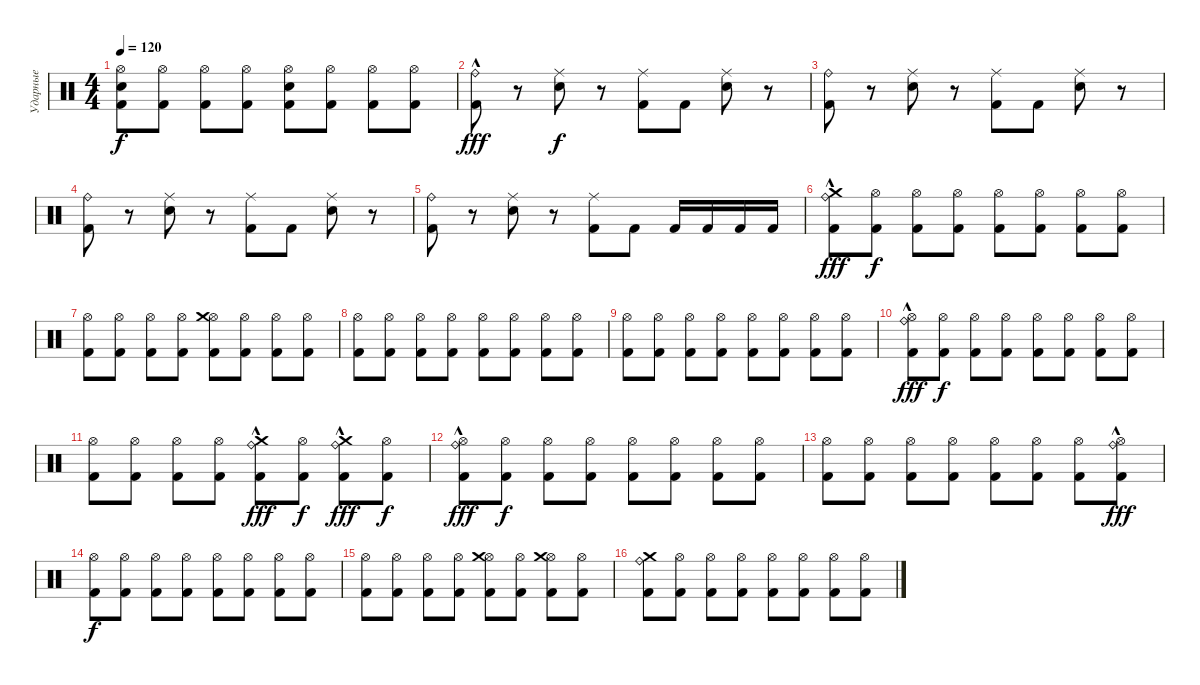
\track ("Ударные" "Ударные") {instrument percussion}
\staff {score}
\articulation defaults
\ts (4 4)
\tempo 120
\clef neutral
\ks c
("Electric Snare (hit)" "Kick (hit) 2" "Hi-Hat (open)").8{dy f} ("Kick (hit) 2" "Hi-Hat (open)").8 ("Kick (hit) 2" "Hi-Hat (open)").8 ("Kick (hit) 2" "Hi-Hat (open)").8 ("Electric Snare (hit)" "Kick (hit) 2" "Hi-Hat (open)").8 ("Kick (hit) 2" "Hi-Hat (open)").8 ("Kick (hit) 2" "Hi-Hat (open)").8 ("Kick (hit) 2" "Hi-Hat (open)").8 |
("Kick (hit) 2" "Ride (bell)"{hac}).8{dy fff} r.8 ("Electric Snare (hit)" "Ride (middle)").8{dy f} r.8 ("Kick (hit) 2" "Ride (middle)").8 "Kick (hit) 2".8 ("Electric Snare (hit)" "Ride (middle)").8 r.8 |
("Kick (hit) 2" "Ride (bell)").8 r.8 ("Electric Snare (hit)" "Ride (middle)").8 r.8 ("Kick (hit) 2" "Ride (middle)").8 "Kick (hit) 2".8 ("Electric Snare (hit)" "Ride (middle)").8 r.8 |
("Kick (hit) 2" "Ride (bell)").8 r.8 ("Electric Snare (hit)" "Ride (middle)").8 r.8 ("Kick (hit) 2" "Ride (middle)").8 "Kick (hit) 2".8 ("Electric Snare (hit)" "Ride (middle)").8 r.8 |
("Kick (hit) 2" "Ride (bell)").8 r.8 ("Electric Snare (hit)" "Ride (middle)").8 r.8 ("Kick (hit) 2" "Ride (middle)").8 "Kick (hit) 2".8 "Kick (hit) 2".16 "Kick (hit) 2".16 "Kick (hit) 2".16 "Kick (hit) 2".16 |
("Kick (hit) 2" "Crash medium (hit)" "Ride (bell)"{hac}).8{dy fff} ("Kick (hit) 2" "Hi-Hat (open)").8{dy f} ("Kick (hit) 2" "Hi-Hat (open)").8 ("Kick (hit) 2" "Hi-Hat (open)").8 ("Kick (hit) 2" "Hi-Hat (open)").8 ("Kick (hit) 2" "Hi-Hat (open)").8 ("Kick (hit) 2" "Hi-Hat (open)").8 ("Kick (hit) 2" "Hi-Hat (open)").8 |
("Kick (hit) 2" "Hi-Hat (open)").8 ("Kick (hit) 2" "Hi-Hat (open)").8 ("Kick (hit) 2" "Hi-Hat (open)").8 ("Kick (hit) 2" "Hi-Hat (open)").8 ("Kick (hit) 2" "Hi-Hat (open)" "Crash medium (hit)").8 ("Kick (hit) 2" "Hi-Hat (open)").8 ("Kick (hit) 2" "Hi-Hat (open)").8 ("Kick (hit) 2" "Hi-Hat (open)").8 |
("Kick (hit) 2" "Hi-Hat (open)").8 ("Kick (hit) 2" "Hi-Hat (open)").8 ("Kick (hit) 2" "Hi-Hat (open)").8 ("Kick (hit) 2" "Hi-Hat (open)").8 ("Kick (hit) 2" "Hi-Hat (open)").8 ("Kick (hit) 2" "Hi-Hat (open)").8 ("Kick (hit) 2" "Hi-Hat (open)").8 ("Kick (hit) 2" "Hi-Hat (open)").8 |
("Kick (hit) 2" "Hi-Hat (open)").8 ("Kick (hit) 2" "Hi-Hat (open)").8 ("Kick (hit) 2" "Hi-Hat (open)").8 ("Kick (hit) 2" "Hi-Hat (open)").8 ("Kick (hit) 2" "Hi-Hat (open)").8 ("Kick (hit) 2" "Hi-Hat (open)").8 ("Kick (hit) 2" "Hi-Hat (open)").8 ("Kick (hit) 2" "Hi-Hat (open)").8 |
("Kick (hit) 2" "Hi-Hat (open)" "Ride (bell)"{hac}).8{dy fff} ("Kick (hit) 2" "Hi-Hat (open)").8{dy f} ("Kick (hit) 2" "Hi-Hat (open)").8 ("Kick (hit) 2" "Hi-Hat (open)").8 ("Kick (hit) 2" "Hi-Hat (open)").8 ("Kick (hit) 2" "Hi-Hat (open)").8 ("Kick (hit) 2" "Hi-Hat (open)").8 ("Kick (hit) 2" "Hi-Hat (open)").8 |
("Kick (hit) 2" "Hi-Hat (open)").8 ("Kick (hit) 2" "Hi-Hat (open)").8 ("Kick (hit) 2" "Hi-Hat (open)").8 ("Kick (hit) 2" "Hi-Hat (open)").8 ("Kick (hit) 2" "Crash medium (hit)" "Ride (bell)"{hac}).8{dy fff} ("Kick (hit) 2" "Hi-Hat (open)").8{dy f} ("Kick (hit) 2" "Crash medium (hit)" "Ride (bell)"{hac}).8{dy fff} ("Kick (hit) 2" "Hi-Hat (open)").8{dy f} |
("Kick (hit) 2" "Hi-Hat (open)" "Ride (bell)"{hac}).8{dy fff} ("Kick (hit) 2" "Hi-Hat (open)").8{dy f} ("Kick (hit) 2" "Hi-Hat (open)").8 ("Kick (hit) 2" "Hi-Hat (open)").8 ("Kick (hit) 2" "Hi-Hat (open)").8 ("Kick (hit) 2" "Hi-Hat (open)").8 ("Kick (hit) 2" "Hi-Hat (open)").8 ("Kick (hit) 2" "Hi-Hat (open)").8 |
("Kick (hit) 2" "Hi-Hat (open)").8 ("Kick (hit) 2" "Hi-Hat (open)").8 ("Kick (hit) 2" "Hi-Hat (open)").8 ("Kick (hit) 2" "Hi-Hat (open)").8 ("Kick (hit) 2" "Hi-Hat (open)").8 ("Kick (hit) 2" "Hi-Hat (open)").8 ("Kick (hit) 2" "Hi-Hat (open)").8 ("Kick (hit) 2" "Hi-Hat (open)" "Ride (bell)"{hac}).8{dy fff} |
("Kick (hit) 2" "Hi-Hat (open)").8{dy f} ("Kick (hit) 2" "Hi-Hat (open)").8 ("Kick (hit) 2" "Hi-Hat (open)").8 ("Kick (hit) 2" "Hi-Hat (open)").8 ("Kick (hit) 2" "Hi-Hat (open)").8 ("Kick (hit) 2" "Hi-Hat (open)").8 ("Kick (hit) 2" "Hi-Hat (open)").8 ("Kick (hit) 2" "Hi-Hat (open)").8 |
("Kick (hit) 2" "Hi-Hat (open)").8 ("Kick (hit) 2" "Hi-Hat (open)").8 ("Kick (hit) 2" "Hi-Hat (open)").8 ("Kick (hit) 2" "Hi-Hat (open)").8 ("Kick (hit) 2" "Hi-Hat (open)" "Crash medium (hit)").8 ("Kick (hit) 2" "Hi-Hat (open)").8 ("Kick (hit) 2" "Hi-Hat (open)" "Crash medium (hit)").8 ("Kick (hit) 2" "Hi-Hat (open)").8 |
("Kick (hit) 2" "Crash medium (hit)" "Ride (bell)").8 ("Kick (hit) 2" "Hi-Hat (open)").8 ("Kick (hit) 2" "Hi-Hat (open)").8 ("Kick (hit) 2" "Hi-Hat (open)").8 ("Kick (hit) 2" "Hi-Hat (open)").8 ("Kick (hit) 2" "Hi-Hat (open)").8 ("Kick (hit) 2" "Hi-Hat (open)").8 ("Kick (hit) 2" "Hi-Hat (open)").8
